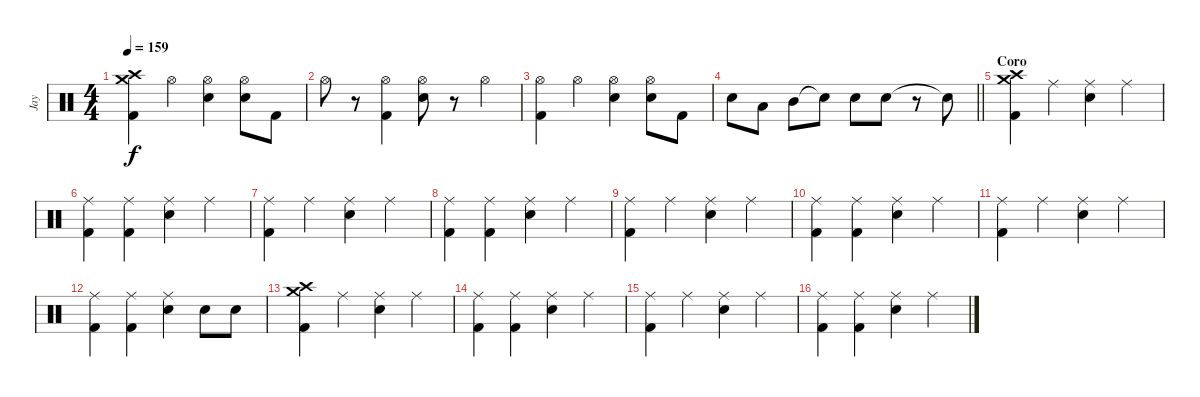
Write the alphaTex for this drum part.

\track ("Jay" "Jay") {instrument percussion}
\staff {score}
\articulation defaults
\ts (4 4)
\tempo 159
\clef neutral
\ks c
("Crash medium (hit)" "Crash high (hit)" "Kick (hit) 2").4{dy f} "Hi-Hat (open)".4 ("Hi-Hat (open)" "Electric Snare (hit)").4 ("Snare (hit)" "Hi-Hat (open)").8 "Kick (hit) 2".8 |
"Hi-Hat (open)".8 r.8 ("Hi-Hat (open)" "Kick (hit) 2").4 ("Hi-Hat (open)" "Electric Snare (hit)").8 r.8 "Hi-Hat (open)".4 |
("Hi-Hat (open)" "Kick (hit) 2").4 "Hi-Hat (open)".4 ("Hi-Hat (open)" "Electric Snare (hit)").4 ("Snare (hit)" "Hi-Hat (open)").8 "Kick (hit) 2".8 |
\barLineRight lightlight "Electric Snare (hit)".8 "Low Tom (hit)".8 "Mid Tom (hit)".8 "Electric Snare (hit)"{t}.8 "Electric Snare (hit)".8 "Electric Snare (hit)".8
r.8 "Snare (hit)"{t}.8 |
\section ("" "Coro")
("Crash medium (hit)" "Crash high (hit)" "Kick (hit) 2").4 "Ride (middle)".4 ("Ride (middle)" "Electric Snare (hit)").4 "Ride (middle)".4 |
("Ride (middle)" "Kick (hit) 2").4 ("Ride (middle)" "Kick (hit) 2").4 ("Ride (middle)" "Electric Snare (hit)").4 "Ride (middle)".4 |
("Ride (middle)" "Kick (hit) 2").4 "Ride (middle)".4 ("Ride (middle)" "Electric Snare (hit)").4 "Ride (middle)".4 |
("Ride (middle)" "Kick (hit) 2").4 ("Ride (middle)" "Kick (hit) 2").4 ("Ride (middle)" "Electric Snare (hit)").4 "Ride (middle)".4 |
("Ride (middle)" "Kick (hit) 2").4 "Ride (middle)".4 ("Ride (middle)" "Electric Snare (hit)").4 "Ride (middle)".4 |
("Ride (middle)" "Kick (hit) 2").4 ("Ride (middle)" "Kick (hit) 2").4 ("Ride (middle)" "Electric Snare (hit)").4 "Ride (middle)".4 |
("Ride (middle)" "Kick (hit) 2").4 "Ride (middle)".4 ("Ride (middle)" "Electric Snare (hit)").4 "Ride (middle)".4 |
("Ride (middle)" "Kick (hit) 2").4 ("Ride (middle)" "Kick (hit) 2").4 ("Ride (middle)" "Electric Snare (hit)").4 "Electric Snare (hit)".8 "Electric Snare (hit)".8 |
("Crash medium (hit)" "Crash high (hit)" "Kick (hit) 2").4 "Ride (middle)".4 ("Ride (middle)" "Electric Snare (hit)").4 "Ride (middle)".4 |
("Ride (middle)" "Kick (hit) 2").4 ("Ride (middle)" "Kick (hit) 2").4 ("Ride (middle)" "Electric Snare (hit)").4 "Ride (middle)".4 |
("Ride (middle)" "Kick (hit) 2").4 "Ride (middle)".4 ("Ride (middle)" "Electric Snare (hit)").4 "Ride (middle)".4 |
("Ride (middle)" "Kick (hit) 2").4 ("Ride (middle)" "Kick (hit) 2").4 ("Ride (middle)" "Electric Snare (hit)").4 "Ride (middle)".4
